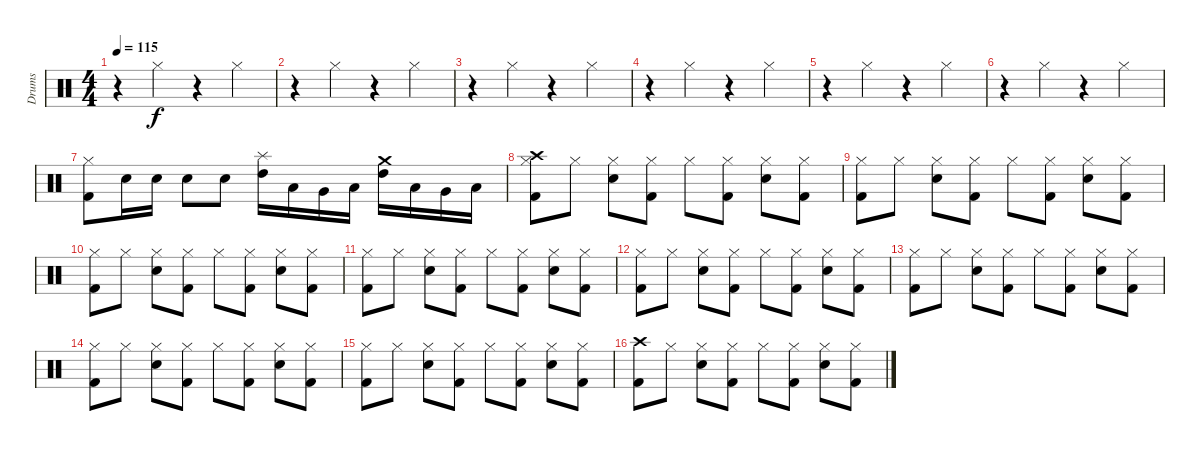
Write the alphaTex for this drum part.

\track ("Drums" "Drums") {instrument percussion}
\staff {score}
\articulation defaults
\ts (4 4)
\tempo 115
\clef neutral
\ks c
r.4{dy f} "Hi-Hat (closed)".4 r.4 "Hi-Hat (closed)".4 |
r.4 "Hi-Hat (closed)".4 r.4 "Hi-Hat (closed)".4 |
r.4 "Hi-Hat (closed)".4 r.4 "Hi-Hat (closed)".4 |
r.4 "Hi-Hat (closed)".4 r.4 "Hi-Hat (closed)".4 |
r.4 "Hi-Hat (closed)".4 r.4 "Hi-Hat (closed)".4 |
r.4 "Hi-Hat (closed)".4 r.4 "Hi-Hat (closed)".4 |
("Hi-Hat (closed)" "Kick (hit) 2").8 "Snare (hit) 2".16 "Snare (hit) 2".16 "Snare (hit) 2".8 "Snare (hit) 2".8 ("Splash (hit)" "High Tom (hit)").16 "Low Tom (hit)".16 "Very Low Tom (hit)".16 "Low Floor Tom (hit)".16 ("Crash medium (hit)" "High Tom (hit)").16 "Low Tom (hit)".16 "Very Low Tom (hit)".16 "Low Floor Tom (hit)".16 |
("Hi-Hat (closed)" "Crash high (hit)" "Kick (hit) 2").8 "Hi-Hat (closed)".8 ("Hi-Hat (closed)" "Snare (hit) 2").8 ("Hi-Hat (closed)" "Kick (hit) 2").8 "Hi-Hat (closed)".8 ("Hi-Hat (closed)" "Kick (hit) 2").8 ("Hi-Hat (closed)" "Snare (hit) 2").8 ("Hi-Hat (closed)" "Kick (hit) 2").8 |
("Hi-Hat (closed)" "Kick (hit) 2").8 "Hi-Hat (closed)".8 ("Hi-Hat (closed)" "Snare (hit) 2").8 ("Hi-Hat (closed)" "Kick (hit) 2").8 "Hi-Hat (closed)".8 ("Hi-Hat (closed)" "Kick (hit) 2").8 ("Hi-Hat (closed)" "Snare (hit) 2").8 ("Hi-Hat (closed)" "Kick (hit) 2").8 |
("Hi-Hat (closed)" "Kick (hit) 2").8 "Hi-Hat (closed)".8 ("Hi-Hat (closed)" "Snare (hit) 2").8 ("Hi-Hat (closed)" "Kick (hit) 2").8 "Hi-Hat (closed)".8 ("Hi-Hat (closed)" "Kick (hit) 2").8 ("Hi-Hat (closed)" "Snare (hit) 2").8 ("Hi-Hat (closed)" "Kick (hit) 2").8 |
("Hi-Hat (closed)" "Kick (hit) 2").8 "Hi-Hat (closed)".8 ("Hi-Hat (closed)" "Snare (hit) 2").8 ("Hi-Hat (closed)" "Kick (hit) 2").8 "Hi-Hat (closed)".8 ("Hi-Hat (closed)" "Kick (hit) 2").8 ("Hi-Hat (closed)" "Snare (hit) 2").8 ("Hi-Hat (closed)" "Kick (hit) 2").8 |
("Hi-Hat (closed)" "Kick (hit) 2").8 "Hi-Hat (closed)".8 ("Hi-Hat (closed)" "Snare (hit) 2").8 ("Hi-Hat (closed)" "Kick (hit) 2").8 "Hi-Hat (closed)".8 ("Hi-Hat (closed)" "Kick (hit) 2").8 ("Hi-Hat (closed)" "Snare (hit) 2").8 ("Hi-Hat (closed)" "Kick (hit) 2").8 |
("Hi-Hat (closed)" "Kick (hit) 2").8 "Hi-Hat (closed)".8 ("Hi-Hat (closed)" "Snare (hit) 2").8 ("Hi-Hat (closed)" "Kick (hit) 2").8 "Hi-Hat (closed)".8 ("Hi-Hat (closed)" "Kick (hit) 2").8 ("Hi-Hat (closed)" "Snare (hit) 2").8 ("Hi-Hat (closed)" "Kick (hit) 2").8 |
("Hi-Hat (closed)" "Kick (hit) 2").8 "Hi-Hat (closed)".8 ("Hi-Hat (closed)" "Snare (hit) 2").8 ("Hi-Hat (closed)" "Kick (hit) 2").8 "Hi-Hat (closed)".8 ("Hi-Hat (closed)" "Kick (hit) 2").8 ("Hi-Hat (closed)" "Snare (hit) 2").8 ("Hi-Hat (closed)" "Kick (hit) 2").8 |
("Hi-Hat (closed)" "Kick (hit) 2").8 "Hi-Hat (closed)".8 ("Hi-Hat (closed)" "Snare (hit) 2").8 ("Hi-Hat (closed)" "Kick (hit) 2").8 "Hi-Hat (closed)".8 ("Hi-Hat (closed)" "Kick (hit) 2").8 ("Hi-Hat (closed)" "Snare (hit) 2").8 ("Hi-Hat (closed)" "Kick (hit) 2").8 |
("Crash high (hit)" "Kick (hit) 2").8 "Hi-Hat (closed)".8 ("Hi-Hat (closed)" "Snare (hit) 2").8 ("Hi-Hat (closed)" "Kick (hit) 2").8 "Hi-Hat (closed)".8 ("Hi-Hat (closed)" "Kick (hit) 2").8 ("Hi-Hat (closed)" "Snare (hit) 2").8 ("Hi-Hat (closed)" "Kick (hit) 2").8
